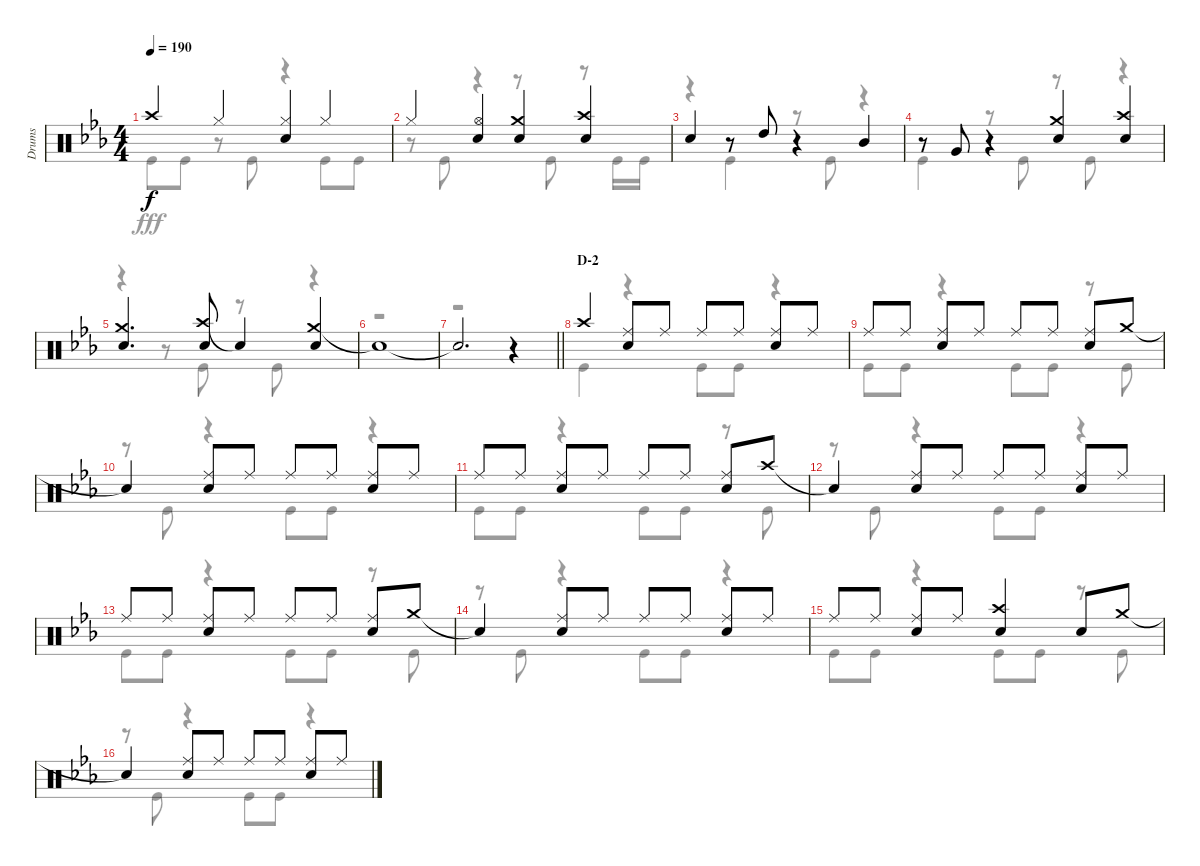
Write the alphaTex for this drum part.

\track ("Drums" "Drums") {instrument percussion}
\staff {score}
\articulation defaults
\voice
\ts (4 4)
\tempo 190
\clef neutral
\ks eb "Crash high (hit)".4{dy f} "Hi-Hat (closed)".4
("Hi-Hat (closed)" "Snare (hit) 2").4 "Hi-Hat (closed)".4 |
"Hi-Hat (closed)".4 ("Hi-Hat (open)" "Snare (hit) 2").4 ("Crash medium (hit)" "Snare (hit) 2").4 ("Crash high (hit)" "Snare (hit) 2").4 |
"Snare (hit) 2".4 r.8 "High Tom (hit)".8 r.4 "Mid Tom (hit)".4 |
r.8 "Very Low Tom (hit)".8 r.4 ("Crash medium (hit)" "Snare (hit) 2").4 ("Crash high (hit)" "Snare (hit) 2").4 |
("Crash medium (hit)" "Snare (hit) 2").4{d} ("Crash high (hit)" "Snare (hit) 2").8 "Snare (hit)"{t}.4 ("Crash medium (hit)" "Snare (hit) 2").4 |
"Snare (hit)"{t}.1 |
\barLineRight lightlight "Snare (hit)"{t}.2{d}
r.4 |
\section ("" "D-2")
"Crash high (hit)".4 ("Ride (middle)" "Snare (hit) 2").8 "Ride (middle)".8 "Ride (middle)".8 "Ride (middle)".8 ("Ride (middle)" "Snare (hit) 2").8 "Ride (middle)".8 |
"Ride (middle)".8 "Ride (middle)".8 ("Ride (middle)" "Snare (hit) 2").8 "Ride (middle)".8 "Ride (middle)".8 "Ride (middle)".8 ("Ride (middle)" "Snare (hit) 2").8 "Crash medium (hit)".8 |
"Snare (hit)"{t}.4 ("Ride (middle)" "Snare (hit) 2").8 "Ride (middle)".8 "Ride (middle)".8 "Ride (middle)".8 ("Ride (middle)" "Snare (hit) 2").8 "Ride (middle)".8 |
"Ride (middle)".8 "Ride (middle)".8 ("Ride (middle)" "Snare (hit) 2").8 "Ride (middle)".8 "Ride (middle)".8 "Ride (middle)".8 ("Ride (middle)" "Snare (hit) 2").8 "Crash high (hit)".8 |
"Snare (hit)"{t}.4 ("Ride (middle)" "Snare (hit) 2").8 "Ride (middle)".8 "Ride (middle)".8 "Ride (middle)".8 ("Ride (middle)" "Snare (hit) 2").8 "Ride (middle)".8 |
"Ride (middle)".8 "Ride (middle)".8 ("Ride (middle)" "Snare (hit) 2").8 "Ride (middle)".8 "Ride (middle)".8 "Ride (middle)".8 ("Ride (middle)" "Snare (hit) 2").8 "Crash medium (hit)".8 |
"Snare (hit)"{t}.4 ("Ride (middle)" "Snare (hit) 2").8 "Ride (middle)".8 "Ride (middle)".8 "Ride (middle)".8 ("Ride (middle)" "Snare (hit) 2").8 "Ride (middle)".8 |
"Ride (middle)".8 "Ride (middle)".8 ("Ride (middle)" "Snare (hit) 2").8 "Ride (middle)".8 ("Crash high (hit)" "Snare (hit) 2").4 "Snare (hit) 2".8 "Crash medium (hit)".8 |
"Snare (hit)"{t}.4 ("Ride (middle)" "Snare (hit) 2").8 "Ride (middle)".8 "Ride (middle)".8 "Ride (middle)".8 ("Ride (middle)" "Snare (hit) 2").8 "Ride (middle)".8
\voice
\clef neutral
\ottava regular
\simile none
\ks eb "Kick (hit)".8{dy fff} "Kick (hit)".8
r.8 "Kick (hit)".8 r.4 "Kick (hit)".8 "Kick (hit)".8 |
r.8 "Kick (hit)".8 r.4 r.8 "Kick (hit)".8 r.8 "Kick (hit)".16 "Kick (hit)".16 |
r.4 "Kick (hit)".4 r.8 "Kick (hit)".8 r.4 |
"Kick (hit)".4 r.8 "Kick (hit)".8 r.8 "Kick (hit)".8 r.4 |
r.4 r.8 "Kick (hit)".8 r.8 "Kick (hit)".8 r.4 |
r.1 |
\barLineRight lightlight
r.1 |
"Kick (hit)".4 r.4 "Kick (hit)".8 "Kick (hit)".8 r.4 |
"Kick (hit)".8 "Kick (hit)".8 r.4 "Kick (hit)".8 "Kick (hit)".8 r.8 "Kick (hit)".8 |
r.8 "Kick (hit)".8 r.4 "Kick (hit)".8 "Kick (hit)".8 r.4 |
"Kick (hit)".8 "Kick (hit)".8 r.4 "Kick (hit)".8 "Kick (hit)".8 r.8 "Kick (hit)".8 |
r.8 "Kick (hit)".8 r.4 "Kick (hit)".8 "Kick (hit)".8 r.4 |
"Kick (hit)".8 "Kick (hit)".8 r.4 "Kick (hit)".8 "Kick (hit)".8 r.8 "Kick (hit)".8 |
r.8 "Kick (hit)".8 r.4 "Kick (hit)".8 "Kick (hit)".8 r.4 |
"Kick (hit)".8 "Kick (hit)".8 r.4 "Kick (hit)".8 "Kick (hit)".8 r.8 "Kick (hit)".8 |
r.8 "Kick (hit)".8 r.4 "Kick (hit)".8 "Kick (hit)".8 r.4
